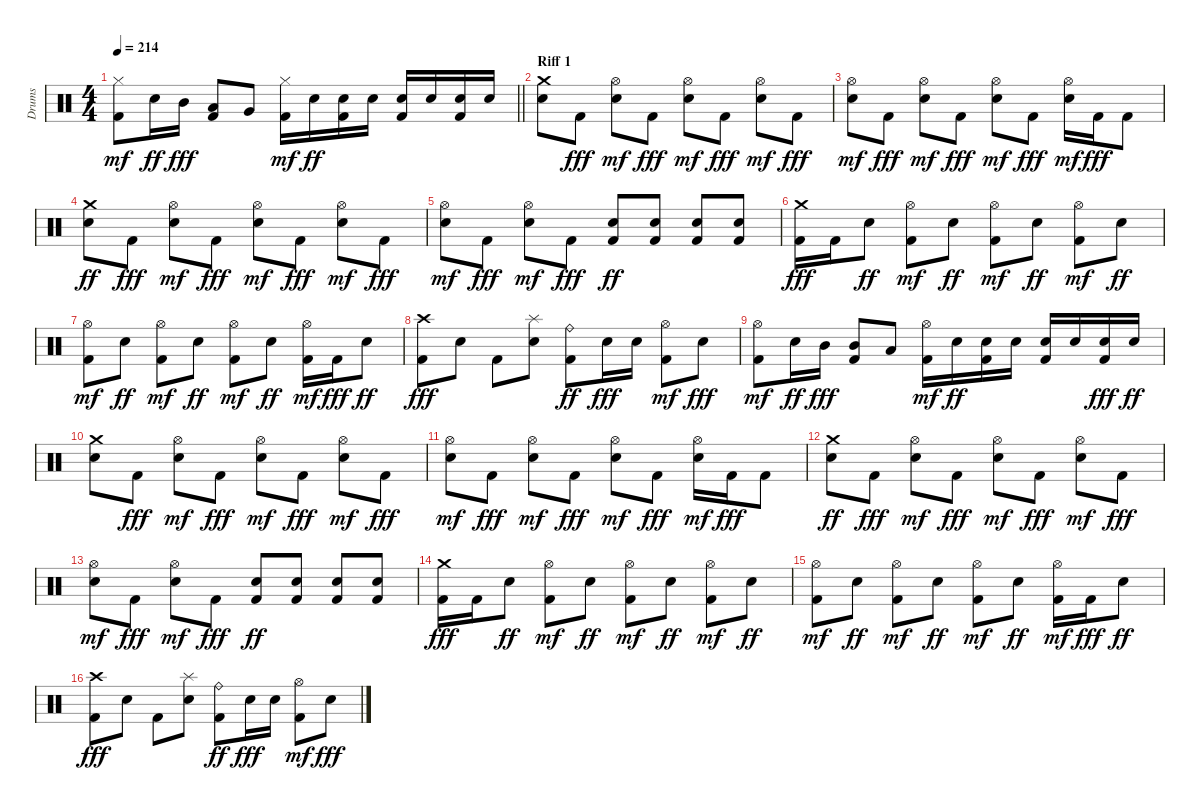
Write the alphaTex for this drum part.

\track ("Drums" "Drums") {instrument percussion}
\staff {score}
\articulation defaults
\ts (4 4)
\tempo 214
\clef neutral
\barLineRight lightlight
\ks c
("Kick (hit) 2" "Hi-Hat (closed)").8{dy mf} "Snare (hit) 2".16{dy ff} "Mid Tom (hit)".16{dy fff} ("Kick (hit) 2" "Low Tom (hit)").8 "Very Low Tom (hit)".8 ("Kick (hit) 2" "Hi-Hat (closed)").16{dy mf} "Snare (hit) 2".16{dy ff} ("Kick (hit) 2" "Snare (hit) 2").16 "Snare (hit) 2".16 ("Kick (hit) 2" "Snare (hit) 2").16 "Snare (hit) 2".16 ("Kick (hit) 2" "Snare (hit) 2").16 "Snare (hit) 2".16 |
\section ("" "Riff 1")
("Snare (hit) 2" "Crash medium (hit)").8 "Kick (hit) 2".8{dy fff} ("Snare (hit) 2" "Hi-Hat (open)").8{dy mf} "Kick (hit) 2".8{dy fff} ("Snare (hit) 2" "Hi-Hat (open)").8{dy mf} "Kick (hit) 2".8{dy fff} ("Snare (hit) 2" "Hi-Hat (open)").8{dy mf} "Kick (hit) 2".8{dy fff} |
("Snare (hit) 2" "Hi-Hat (open)").8{dy mf} "Kick (hit) 2".8{dy fff} ("Snare (hit) 2" "Hi-Hat (open)").8{dy mf} "Kick (hit) 2".8{dy fff} ("Snare (hit) 2" "Hi-Hat (open)").8{dy mf} "Kick (hit) 2".8{dy fff} ("Snare (hit) 2" "Hi-Hat (open)").16{dy mf} "Kick (hit) 2".16{dy fff} "Kick (hit) 2".8 |
("Snare (hit) 2" "Crash medium (hit)").8{dy ff} "Kick (hit) 2".8{dy fff} ("Snare (hit) 2" "Hi-Hat (open)").8{dy mf} "Kick (hit) 2".8{dy fff} ("Snare (hit) 2" "Hi-Hat (open)").8{dy mf} "Kick (hit) 2".8{dy fff} ("Snare (hit) 2" "Hi-Hat (open)").8{dy mf} "Kick (hit) 2".8{dy fff} |
("Snare (hit) 2" "Hi-Hat (open)").8{dy mf} "Kick (hit) 2".8{dy fff} ("Snare (hit) 2" "Hi-Hat (open)").8{dy mf} "Kick (hit) 2".8{dy fff} ("Kick (hit) 2" "Snare (hit) 2").8{dy ff} ("Kick (hit) 2" "Snare (hit) 2").8 ("Kick (hit) 2" "Snare (hit) 2").8 ("Kick (hit) 2" "Snare (hit) 2").8 |
("Kick (hit) 2" "Crash medium (hit)").16{dy fff} "Kick (hit) 2".16 "Snare (hit) 2".8{dy ff} ("Kick (hit) 2" "Hi-Hat (open)").8{dy mf} "Snare (hit) 2".8{dy ff} ("Kick (hit) 2" "Hi-Hat (open)").8{dy mf} "Snare (hit) 2".8{dy ff} ("Kick (hit) 2" "Hi-Hat (open)").8{dy mf} "Snare (hit) 2".8{dy ff} |
("Kick (hit) 2" "Hi-Hat (open)").8{dy mf} "Snare (hit) 2".8{dy ff} ("Kick (hit) 2" "Hi-Hat (open)").8{dy mf} "Snare (hit) 2".8{dy ff} ("Kick (hit) 2" "Hi-Hat (open)").8{dy mf} "Snare (hit) 2".8{dy ff} ("Kick (hit) 2" "Hi-Hat (open)").16{dy mf} "Kick (hit) 2".16{dy fff} "Snare (hit) 2".8{dy ff} |
("Kick (hit) 2" "Crash high (hit)").8{dy fff} "Snare (hit) 2".8 "Kick (hit) 2".8 ("Snare (hit) 2" "Splash (hit)").8 ("Kick (hit) 2" "Ride (bell)").8{dy ff} "Snare (hit) 2".16{dy fff} "Snare (hit) 2".16 ("Kick (hit) 2" "Hi-Hat (open)").8{dy mf} "Snare (hit) 2".8{dy fff} |
("Kick (hit) 2" "Hi-Hat (open)").8{dy mf} "Snare (hit) 2".16{dy ff} "Mid Tom (hit)".16{dy fff} ("Kick (hit) 2" "Mid Tom (hit)").8 "Low Tom (hit)".8 ("Kick (hit) 2" "Hi-Hat (open)").16{dy mf} "Snare (hit) 2".16{dy ff} ("Kick (hit) 2" "Snare (hit) 2").16 "Snare (hit) 2".16 ("Kick (hit) 2" "Snare (hit) 2").16 "Snare (hit) 2".16 ("Kick (hit) 2" "Snare (hit) 2").16{dy fff} "Snare (hit) 2".16{dy ff} |
("Snare (hit) 2" "Crash medium (hit)").8 "Kick (hit) 2".8{dy fff} ("Snare (hit) 2" "Hi-Hat (open)").8{dy mf} "Kick (hit) 2".8{dy fff} ("Snare (hit) 2" "Hi-Hat (open)").8{dy mf} "Kick (hit) 2".8{dy fff} ("Snare (hit) 2" "Hi-Hat (open)").8{dy mf} "Kick (hit) 2".8{dy fff} |
("Snare (hit) 2" "Hi-Hat (open)").8{dy mf} "Kick (hit) 2".8{dy fff} ("Snare (hit) 2" "Hi-Hat (open)").8{dy mf} "Kick (hit) 2".8{dy fff} ("Snare (hit) 2" "Hi-Hat (open)").8{dy mf} "Kick (hit) 2".8{dy fff} ("Snare (hit) 2" "Hi-Hat (open)").16{dy mf} "Kick (hit) 2".16{dy fff} "Kick (hit) 2".8 |
("Snare (hit) 2" "Crash medium (hit)").8{dy ff} "Kick (hit) 2".8{dy fff} ("Snare (hit) 2" "Hi-Hat (open)").8{dy mf} "Kick (hit) 2".8{dy fff} ("Snare (hit) 2" "Hi-Hat (open)").8{dy mf} "Kick (hit) 2".8{dy fff} ("Snare (hit) 2" "Hi-Hat (open)").8{dy mf} "Kick (hit) 2".8{dy fff} |
("Snare (hit) 2" "Hi-Hat (open)").8{dy mf} "Kick (hit) 2".8{dy fff} ("Snare (hit) 2" "Hi-Hat (open)").8{dy mf} "Kick (hit) 2".8{dy fff} ("Kick (hit) 2" "Snare (hit) 2").8{dy ff} ("Kick (hit) 2" "Snare (hit) 2").8 ("Kick (hit) 2" "Snare (hit) 2").8 ("Kick (hit) 2" "Snare (hit) 2").8 |
("Kick (hit) 2" "Crash medium (hit)").16{dy fff} "Kick (hit) 2".16 "Snare (hit) 2".8{dy ff} ("Kick (hit) 2" "Hi-Hat (open)").8{dy mf} "Snare (hit) 2".8{dy ff} ("Kick (hit) 2" "Hi-Hat (open)").8{dy mf} "Snare (hit) 2".8{dy ff} ("Kick (hit) 2" "Hi-Hat (open)").8{dy mf} "Snare (hit) 2".8{dy ff} |
("Kick (hit) 2" "Hi-Hat (open)").8{dy mf} "Snare (hit) 2".8{dy ff} ("Kick (hit) 2" "Hi-Hat (open)").8{dy mf} "Snare (hit) 2".8{dy ff} ("Kick (hit) 2" "Hi-Hat (open)").8{dy mf} "Snare (hit) 2".8{dy ff} ("Kick (hit) 2" "Hi-Hat (open)").16{dy mf} "Kick (hit) 2".16{dy fff} "Snare (hit) 2".8{dy ff} |
("Kick (hit) 2" "Crash high (hit)").8{dy fff} "Snare (hit) 2".8 "Kick (hit) 2".8 ("Snare (hit) 2" "Splash (hit)").8 ("Kick (hit) 2" "Ride (bell)").8{dy ff} "Snare (hit) 2".16{dy fff} "Snare (hit) 2".16 ("Kick (hit) 2" "Hi-Hat (open)").8{dy mf} "Snare (hit) 2".8{dy fff}
